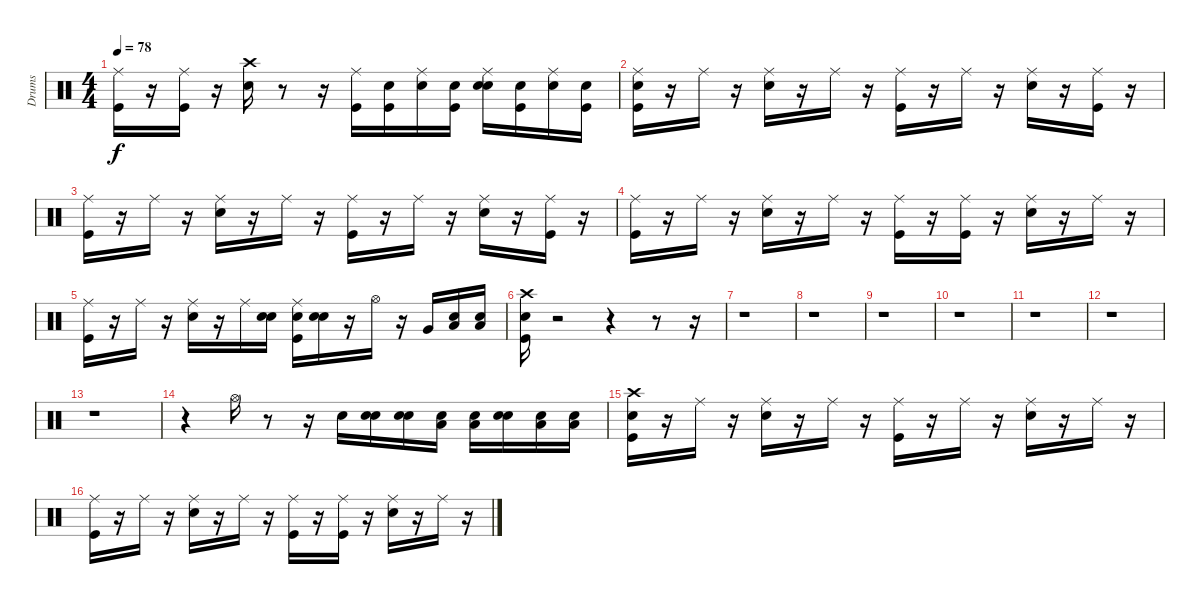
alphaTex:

\track ("Drums" "Drums") {instrument percussion}
\staff {score}
\articulation defaults
\ts (4 4)
\tempo 78
\clef neutral
\ks c
("Kick (hit)" "Ride (middle)").16{dy f} r.16 ("Kick (hit)" "Ride (middle)").16 r.16 ("Snare (hit) 2" "Crash high (hit)").16 r.8 r.16 ("Kick (hit)" "Ride (middle)").16 ("Snare (hit)" "Kick (hit)").16 ("Snare (hit)" "Ride (middle)").16 ("Snare (hit)" "Kick (hit)").16 ("Snare (hit)" "Snare (hit) 2" "Ride (middle)").16 ("Snare (hit)" "Kick (hit)").16 ("Snare (hit)" "Ride (middle)").16 ("Snare (hit)" "Kick (hit)").16 |
("Snare (hit)" "Kick (hit)" "Ride (middle)").16 r.16 "Ride (middle)".16 r.16 ("Snare (hit) 2" "Ride (middle)").16 r.16 "Ride (middle)".16 r.16 ("Kick (hit)" "Ride (middle)").16 r.16 "Ride (middle)".16 r.16 ("Snare (hit) 2" "Ride (middle)").16 r.16 ("Kick (hit)" "Ride (middle)").16 r.16 |
("Kick (hit)" "Ride (middle)").16 r.16 "Ride (middle)".16 r.16 ("Snare (hit) 2" "Ride (middle)").16 r.16 "Ride (middle)".16 r.16 ("Kick (hit)" "Ride (middle)").16 r.16 "Ride (middle)".16 r.16 ("Snare (hit) 2" "Ride (middle)").16 r.16 ("Kick (hit)" "Ride (middle)").16 r.16 |
("Kick (hit)" "Ride (middle)").16 r.16 "Ride (middle)".16 r.16 ("Snare (hit) 2" "Ride (middle)").16 r.16 "Ride (middle)".16 r.16 ("Kick (hit)" "Ride (middle)").16 r.16 ("Kick (hit)" "Ride (middle)").16 r.16 ("Snare (hit) 2" "Ride (middle)").16 r.16 "Ride (middle)".16 r.16 |
("Kick (hit)" "Ride (middle)").16 r.16 "Ride (middle)".16 r.16 ("Snare (hit) 2" "Ride (middle)").16 r.16 "Ride (middle)".16 ("Snare (hit)" "Snare (hit) 2").16 ("Snare (hit)" "Kick (hit)" "Ride (middle)").16 ("Snare (hit)" "Snare (hit) 2").16 r.16 "Hi-Hat (open)".16 r.16 "Very Low Tom (hit)".16 ("Snare (hit)" "Low Tom (hit)").16 ("Snare (hit)" "Low Tom (hit)").16 |
("Snare (hit)" "Kick (hit)" "Crash high (hit)").16 r.2 r.4 r.8 r.16 |
r.1 |
r.1 |
r.1 |
r.1 |
r.1 |
r.1 |
r.1 |
r.4 "Hi-Hat (open)".16 r.8 r.16 "Snare (hit) 2".16 ("Snare (hit)" "Snare (hit) 2").16 ("Snare (hit)" "Snare (hit) 2").16 ("Snare (hit)" "Low Tom (hit)").16 ("Snare (hit)" "Low Tom (hit)").16 ("Snare (hit)" "Snare (hit) 2").16 ("Snare (hit)" "Low Tom (hit)").16 ("Snare (hit)" "Low Tom (hit)").16 |
("Snare (hit)" "Kick (hit)" "Crash high (hit)").16 r.16 "Ride (middle)".16 r.16 ("Snare (hit) 2" "Ride (middle)").16 r.16 "Ride (middle)".16 r.16 ("Kick (hit)" "Ride (middle)").16 r.16 "Ride (middle)".16 r.16 ("Snare (hit) 2" "Ride (middle)").16 r.16 "Ride (middle)".16 r.16 |
("Kick (hit)" "Ride (middle)").16 r.16 "Ride (middle)".16 r.16 ("Snare (hit) 2" "Ride (middle)").16 r.16 "Ride (middle)".16 r.16 ("Kick (hit)" "Ride (middle)").16 r.16 ("Kick (hit)" "Ride (middle)").16 r.16 ("Snare (hit) 2" "Ride (middle)").16 r.16 "Ride (middle)".16 r.16
